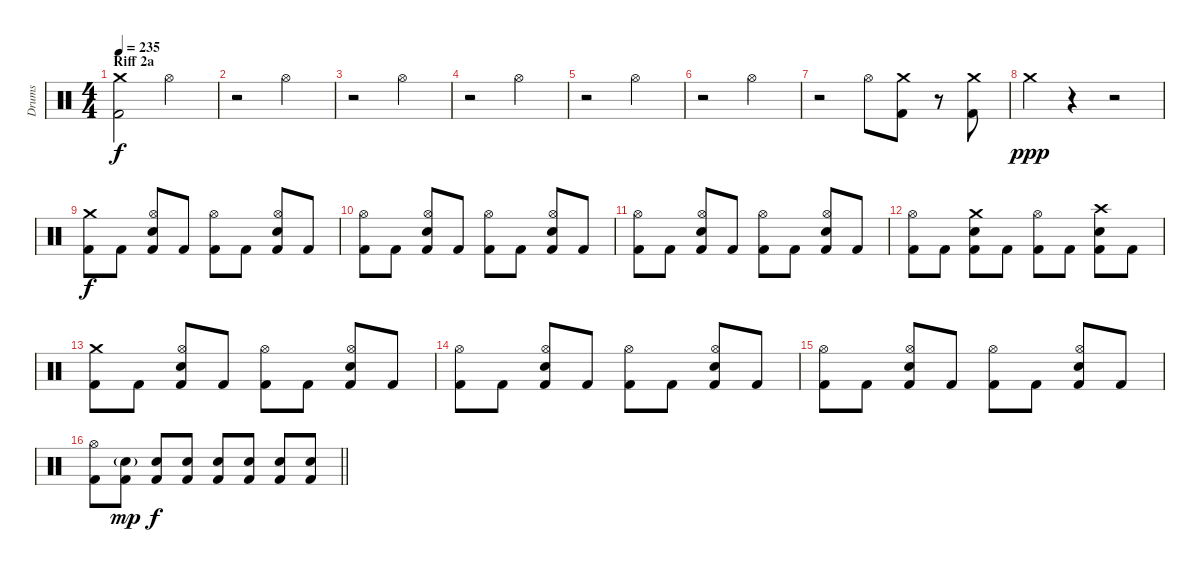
\track ("Drums" "Drums") {instrument percussion}
\staff {score}
\articulation defaults
\ts (4 4)
\section ("" "Riff 2a")
\tempo 235
\clef neutral
\ks aminor
("Crash medium (hit)" "Kick (hit) 2").2{dy f} "Hi-Hat (open)".2 |
r.2 "Hi-Hat (open)".2 |
r.2 "Hi-Hat (open)".2 |
r.2 "Hi-Hat (open)".2 |
r.2 "Hi-Hat (open)".2 |
r.2 "Hi-Hat (open)".2 |
r.2 "Hi-Hat (open)".8 ("Kick (hit) 2" "Crash medium (hit)").8 r.8 ("Kick (hit) 2" "Crash medium (hit)").8 |
"Crash medium (hit)".4{dy ppp} r.4 r.2 |
("Crash medium (hit)" "Kick (hit) 2").8{dy f} "Kick (hit) 2".8 ("Electric Snare (hit)" "Kick (hit) 2" "Hi-Hat (open)").8 "Kick (hit) 2".8 ("Hi-Hat (open)" "Kick (hit) 2").8 "Kick (hit) 2".8 ("Hi-Hat (open)" "Kick (hit) 2" "Electric Snare (hit)").8 "Kick (hit) 2".8 |
("Hi-Hat (open)" "Kick (hit) 2").8 "Kick (hit) 2".8 ("Hi-Hat (open)" "Kick (hit) 2" "Electric Snare (hit)").8 "Kick (hit) 2".8 ("Hi-Hat (open)" "Kick (hit) 2").8 "Kick (hit) 2".8 ("Hi-Hat (open)" "Kick (hit) 2" "Electric Snare (hit)").8 "Kick (hit) 2".8 |
("Hi-Hat (open)" "Kick (hit) 2").8 "Kick (hit) 2".8 ("Hi-Hat (open)" "Kick (hit) 2" "Electric Snare (hit)").8 "Kick (hit) 2".8 ("Hi-Hat (open)" "Kick (hit) 2").8 "Kick (hit) 2".8 ("Hi-Hat (open)" "Kick (hit) 2" "Electric Snare (hit)").8 "Kick (hit) 2".8 |
("Hi-Hat (open)" "Kick (hit) 2").8 "Kick (hit) 2".8 ("Crash medium (hit)" "Kick (hit) 2" "Electric Snare (hit)").8 "Kick (hit) 2".8 ("Hi-Hat (open)" "Kick (hit) 2").8 "Kick (hit) 2".8 ("Crash high (hit)" "Kick (hit) 2" "Electric Snare (hit)").8 "Kick (hit) 2".8 |
("Crash medium (hit)" "Kick (hit) 2").8 "Kick (hit) 2".8 ("Electric Snare (hit)" "Kick (hit) 2" "Hi-Hat (open)").8 "Kick (hit) 2".8 ("Hi-Hat (open)" "Kick (hit) 2").8 "Kick (hit) 2".8 ("Hi-Hat (open)" "Kick (hit) 2" "Electric Snare (hit)").8 "Kick (hit) 2".8 |
("Hi-Hat (open)" "Kick (hit) 2").8 "Kick (hit) 2".8 ("Hi-Hat (open)" "Kick (hit) 2" "Electric Snare (hit)").8 "Kick (hit) 2".8 ("Hi-Hat (open)" "Kick (hit) 2").8 "Kick (hit) 2".8 ("Hi-Hat (open)" "Kick (hit) 2" "Electric Snare (hit)").8 "Kick (hit) 2".8 |
("Hi-Hat (open)" "Kick (hit) 2").8 "Kick (hit) 2".8 ("Hi-Hat (open)" "Kick (hit) 2" "Electric Snare (hit)").8 "Kick (hit) 2".8 ("Hi-Hat (open)" "Kick (hit) 2").8 "Kick (hit) 2".8 ("Hi-Hat (open)" "Kick (hit) 2" "Electric Snare (hit)").8 "Kick (hit) 2".8 |
\barLineRight lightlight
("Hi-Hat (open)" "Kick (hit) 2").8 ("Electric Snare (hit)"{g} "Kick (hit) 2").8{dy mp} ("Kick (hit) 2" "Electric Snare (hit)").8{dy f} ("Electric Snare (hit)" "Kick (hit) 2").8 ("Electric Snare (hit)" "Kick (hit) 2").8 ("Electric Snare (hit)" "Kick (hit) 2").8 ("Kick (hit) 2" "Electric Snare (hit)").8 ("Electric Snare (hit)" "Kick (hit) 2").8
